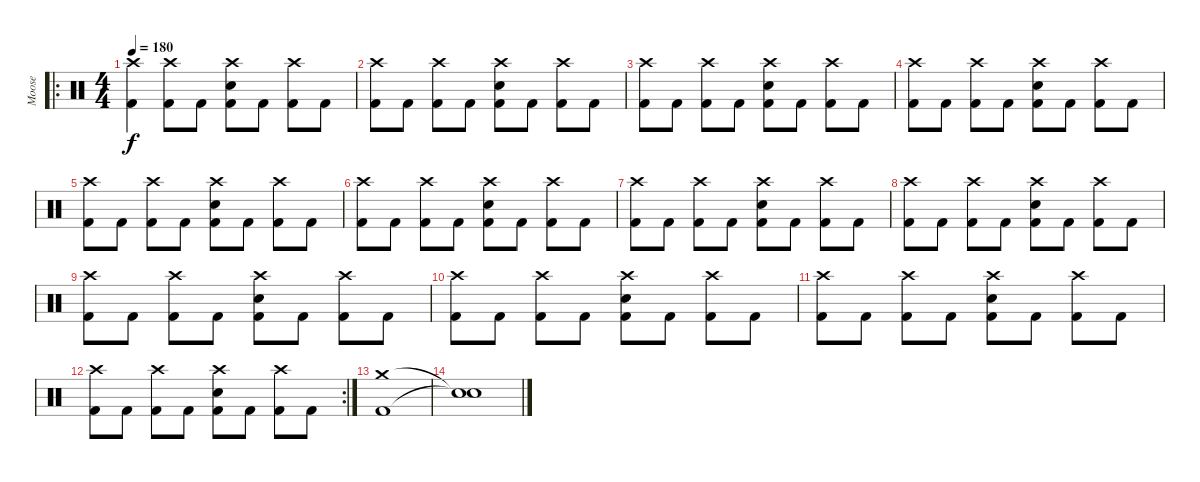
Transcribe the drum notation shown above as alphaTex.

\track ("Moose" "Moose") {instrument percussion}
\staff {score}
\articulation defaults
\ro
\ts (4 4)
\tempo 180
\clef neutral
\ks c
("Crash high (hit)" "Kick (hit) 2").4{dy f} ("Crash high (hit)" "Kick (hit) 2").8 "Kick (hit) 2".8 ("Crash high (hit)" "Electric Snare (hit)" "Kick (hit) 2").8 "Kick (hit) 2".8 ("Crash high (hit)" "Kick (hit) 2").8 "Kick (hit) 2".8 |
("Crash high (hit)" "Kick (hit) 2").8 "Kick (hit) 2".8 ("Crash high (hit)" "Kick (hit) 2").8 "Kick (hit) 2".8 ("Crash high (hit)" "Snare (hit) 2" "Kick (hit) 2").8 "Kick (hit) 2".8 ("Crash high (hit)" "Kick (hit) 2").8 "Kick (hit) 2".8 |
("Crash high (hit)" "Kick (hit) 2").8 "Kick (hit) 2".8 ("Crash high (hit)" "Kick (hit) 2").8 "Kick (hit) 2".8 ("Crash high (hit)" "Snare (hit) 2" "Kick (hit) 2").8 "Kick (hit) 2".8 ("Crash high (hit)" "Kick (hit) 2").8 "Kick (hit) 2".8 |
("Crash high (hit)" "Kick (hit) 2").8 "Kick (hit) 2".8 ("Crash high (hit)" "Kick (hit) 2").8 "Kick (hit) 2".8 ("Crash high (hit)" "Snare (hit) 2" "Kick (hit) 2").8 "Kick (hit) 2".8 ("Crash high (hit)" "Kick (hit) 2").8 "Kick (hit) 2".8 |
("Crash high (hit)" "Kick (hit) 2").8 "Kick (hit) 2".8 ("Crash high (hit)" "Kick (hit) 2").8 "Kick (hit) 2".8 ("Crash high (hit)" "Snare (hit) 2" "Kick (hit) 2").8 "Kick (hit) 2".8 ("Crash high (hit)" "Kick (hit) 2").8 "Kick (hit) 2".8 |
("Crash high (hit)" "Kick (hit) 2").8 "Kick (hit) 2".8 ("Crash high (hit)" "Kick (hit) 2").8 "Kick (hit) 2".8 ("Crash high (hit)" "Snare (hit) 2" "Kick (hit) 2").8 "Kick (hit) 2".8 ("Crash high (hit)" "Kick (hit) 2").8 "Kick (hit) 2".8 |
("Crash high (hit)" "Kick (hit) 2").8 "Kick (hit) 2".8 ("Crash high (hit)" "Kick (hit) 2").8 "Kick (hit) 2".8 ("Crash high (hit)" "Snare (hit) 2" "Kick (hit) 2").8 "Kick (hit) 2".8 ("Crash high (hit)" "Kick (hit) 2").8 "Kick (hit) 2".8 |
("Crash high (hit)" "Kick (hit) 2").8 "Kick (hit) 2".8 ("Crash high (hit)" "Kick (hit) 2").8 "Kick (hit) 2".8 ("Crash high (hit)" "Snare (hit) 2" "Kick (hit) 2").8 "Kick (hit) 2".8 ("Crash high (hit)" "Kick (hit) 2").8 "Kick (hit) 2".8 |
("Crash high (hit)" "Kick (hit) 2").8 "Kick (hit) 2".8 ("Crash high (hit)" "Kick (hit) 2").8 "Kick (hit) 2".8 ("Crash high (hit)" "Snare (hit) 2" "Kick (hit) 2").8 "Kick (hit) 2".8 ("Crash high (hit)" "Kick (hit) 2").8 "Kick (hit) 2".8 |
("Crash high (hit)" "Kick (hit) 2").8 "Kick (hit) 2".8 ("Crash high (hit)" "Kick (hit) 2").8 "Kick (hit) 2".8 ("Crash high (hit)" "Snare (hit) 2" "Kick (hit) 2").8 "Kick (hit) 2".8 ("Crash high (hit)" "Kick (hit) 2").8 "Kick (hit) 2".8 |
("Crash high (hit)" "Kick (hit) 2").8 "Kick (hit) 2".8 ("Crash high (hit)" "Kick (hit) 2").8 "Kick (hit) 2".8 ("Crash high (hit)" "Snare (hit) 2" "Kick (hit) 2").8 "Kick (hit) 2".8 ("Crash high (hit)" "Kick (hit) 2").8 "Kick (hit) 2".8 |
\rc 2
("Crash high (hit)" "Kick (hit) 2").8 "Kick (hit) 2".8 ("Crash high (hit)" "Kick (hit) 2").8 "Kick (hit) 2".8 ("Crash high (hit)" "Snare (hit) 2" "Kick (hit) 2").8 "Kick (hit) 2".8 ("Crash high (hit)" "Kick (hit) 2").8 "Kick (hit) 2".8 |
("Crash medium (hit)" "Kick (hit) 2").1 |
("Snare (hit)"{t} "Snare (hit)"{t}).1
